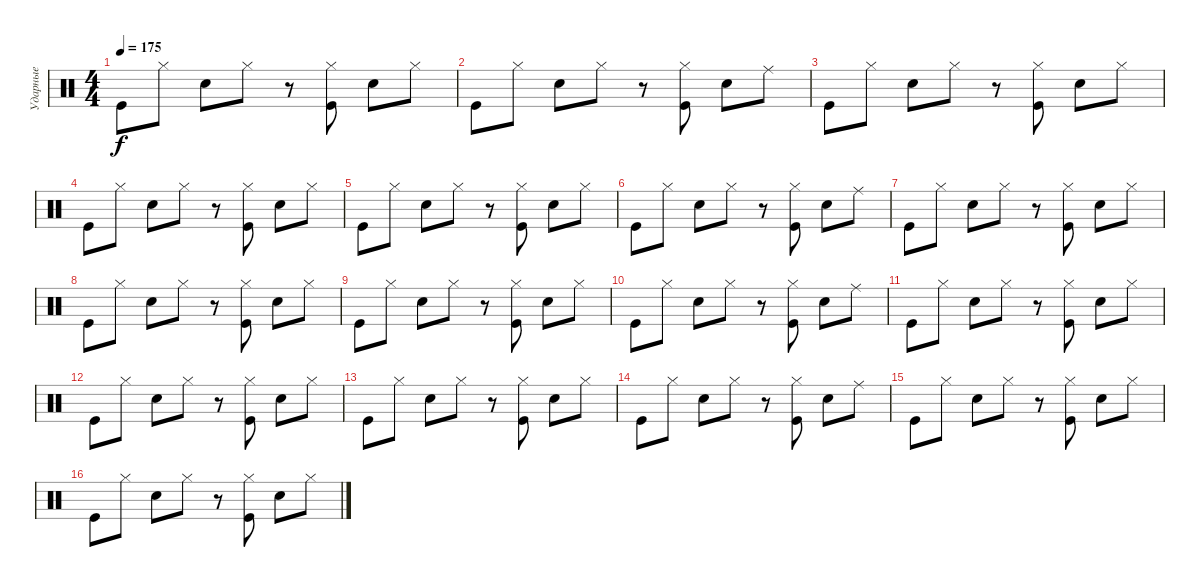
\track ("Ударные" "Ударные") {instrument percussion}
\staff {score}
\articulation defaults
\ts (4 4)
\tempo 175
\clef neutral
\ks c "Kick (hit)".8{dy f} "Hi-Hat (closed)".8 "Electric Snare (hit)".8 "Hi-Hat (closed)".8
r.8 ("Hi-Hat (closed)" "Kick (hit)").8 "Electric Snare (hit)".8 "Hi-Hat (closed)".8 |
"Kick (hit)".8 "Hi-Hat (closed)".8 "Electric Snare (hit)".8 "Hi-Hat (closed)".8 r.8 ("Hi-Hat (closed)" "Kick (hit)").8 "Electric Snare (hit)".8 "Ride (middle)".8 |
"Kick (hit)".8 "Hi-Hat (closed)".8 "Electric Snare (hit)".8 "Hi-Hat (closed)".8 r.8 ("Hi-Hat (closed)" "Kick (hit)").8 "Electric Snare (hit)".8 "Hi-Hat (closed)".8 |
"Kick (hit)".8 "Hi-Hat (closed)".8 "Electric Snare (hit)".8 "Hi-Hat (closed)".8 r.8 ("Hi-Hat (closed)" "Kick (hit)").8 "Electric Snare (hit)".8 "Hi-Hat (closed)".8 |
"Kick (hit)".8 "Hi-Hat (closed)".8 "Electric Snare (hit)".8 "Hi-Hat (closed)".8 r.8 ("Hi-Hat (closed)" "Kick (hit)").8 "Electric Snare (hit)".8 "Hi-Hat (closed)".8 |
"Kick (hit)".8 "Hi-Hat (closed)".8 "Electric Snare (hit)".8 "Hi-Hat (closed)".8 r.8 ("Hi-Hat (closed)" "Kick (hit)").8 "Electric Snare (hit)".8 "Ride (middle)".8 |
"Kick (hit)".8 "Hi-Hat (closed)".8 "Electric Snare (hit)".8 "Hi-Hat (closed)".8 r.8 ("Hi-Hat (closed)" "Kick (hit)").8 "Electric Snare (hit)".8 "Hi-Hat (closed)".8 |
"Kick (hit)".8 "Hi-Hat (closed)".8 "Electric Snare (hit)".8 "Hi-Hat (closed)".8 r.8 ("Hi-Hat (closed)" "Kick (hit)").8 "Electric Snare (hit)".8 "Hi-Hat (closed)".8 |
"Kick (hit)".8 "Hi-Hat (closed)".8 "Electric Snare (hit)".8 "Hi-Hat (closed)".8 r.8 ("Hi-Hat (closed)" "Kick (hit)").8 "Electric Snare (hit)".8 "Hi-Hat (closed)".8 |
"Kick (hit)".8 "Hi-Hat (closed)".8 "Electric Snare (hit)".8 "Hi-Hat (closed)".8 r.8 ("Hi-Hat (closed)" "Kick (hit)").8 "Electric Snare (hit)".8 "Ride (middle)".8 |
"Kick (hit)".8 "Hi-Hat (closed)".8 "Electric Snare (hit)".8 "Hi-Hat (closed)".8 r.8 ("Hi-Hat (closed)" "Kick (hit)").8 "Electric Snare (hit)".8 "Hi-Hat (closed)".8 |
"Kick (hit)".8 "Hi-Hat (closed)".8 "Electric Snare (hit)".8 "Hi-Hat (closed)".8 r.8 ("Hi-Hat (closed)" "Kick (hit)").8 "Electric Snare (hit)".8 "Hi-Hat (closed)".8 |
"Kick (hit)".8 "Hi-Hat (closed)".8 "Electric Snare (hit)".8 "Hi-Hat (closed)".8 r.8 ("Hi-Hat (closed)" "Kick (hit)").8 "Electric Snare (hit)".8 "Hi-Hat (closed)".8 |
"Kick (hit)".8 "Hi-Hat (closed)".8 "Electric Snare (hit)".8 "Hi-Hat (closed)".8 r.8 ("Hi-Hat (closed)" "Kick (hit)").8 "Electric Snare (hit)".8 "Ride (middle)".8 |
"Kick (hit)".8 "Hi-Hat (closed)".8 "Electric Snare (hit)".8 "Hi-Hat (closed)".8 r.8 ("Hi-Hat (closed)" "Kick (hit)").8 "Electric Snare (hit)".8 "Hi-Hat (closed)".8 |
"Kick (hit)".8 "Hi-Hat (closed)".8 "Electric Snare (hit)".8 "Hi-Hat (closed)".8 r.8 ("Hi-Hat (closed)" "Kick (hit)").8 "Electric Snare (hit)".8 "Hi-Hat (closed)".8
